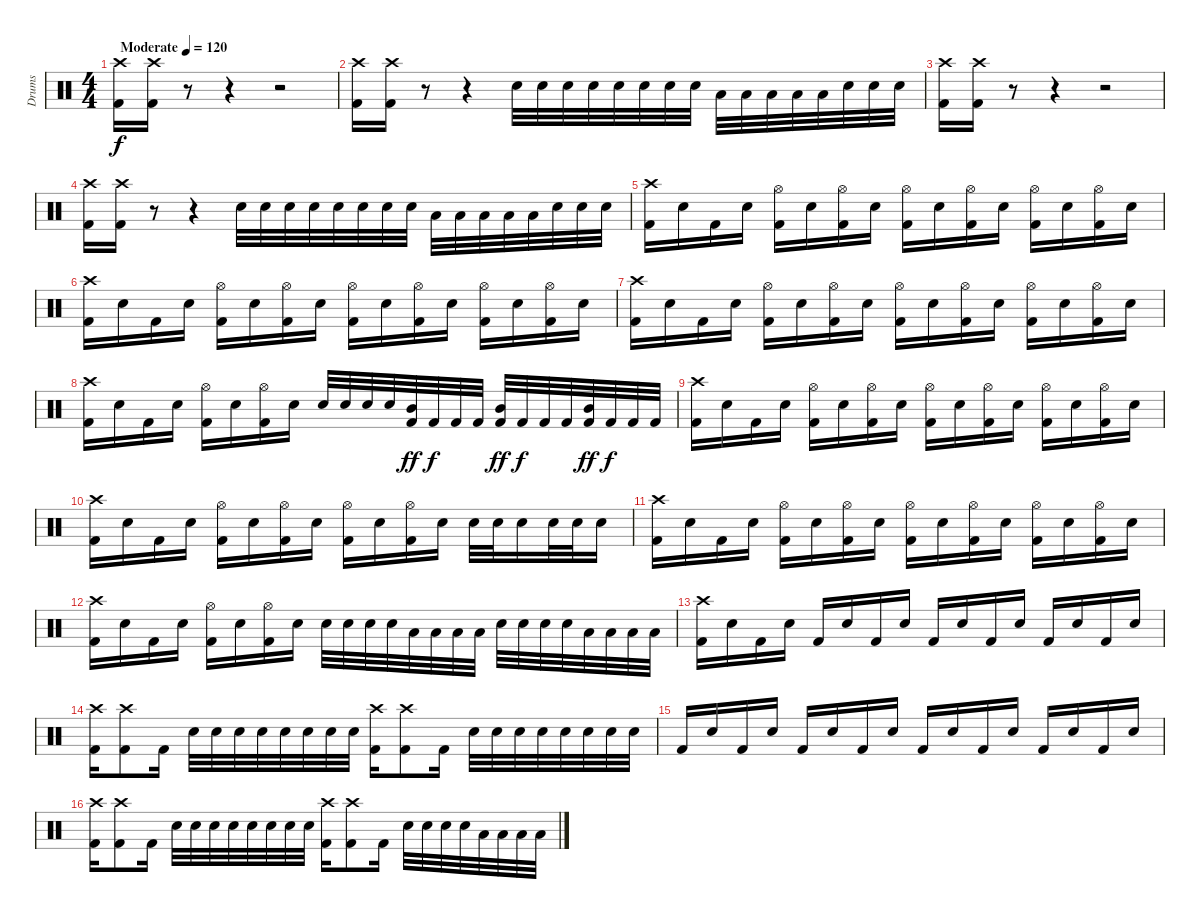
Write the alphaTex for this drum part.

\track ("Drums" "Drums") {instrument percussion}
\staff {score}
\articulation defaults
\ts (4 4)
\tempo (120 "Moderate")
\clef neutral
\ks c
("Crash high (hit)" "Kick (hit) 2").16{dy f} ("Crash high (hit)" "Kick (hit) 2").16 r.8 r.4 r.2 |
("Crash high (hit)" "Kick (hit) 2").16 ("Crash high (hit)" "Kick (hit) 2").16 r.8 r.4 "Electric Snare (hit)".32 "Electric Snare (hit)".32 "Electric Snare (hit)".32 "Electric Snare (hit)".32 "Electric Snare (hit)".32 "Electric Snare (hit)".32 "Electric Snare (hit)".32 "Electric Snare (hit)".32 "Low Floor Tom (hit)".32 "Low Floor Tom (hit)".32 "Low Floor Tom (hit)".32 "Low Floor Tom (hit)".32 "Low Floor Tom (hit)".32 "Electric Snare (hit)".32 "Electric Snare (hit)".32 "Electric Snare (hit)".32 |
("Crash high (hit)" "Kick (hit) 2").16 ("Crash high (hit)" "Kick (hit) 2").16 r.8 r.4 r.2 |
("Crash high (hit)" "Kick (hit) 2").16 ("Crash high (hit)" "Kick (hit) 2").16 r.8 r.4 "Electric Snare (hit)".32 "Electric Snare (hit)".32 "Electric Snare (hit)".32 "Electric Snare (hit)".32 "Electric Snare (hit)".32 "Electric Snare (hit)".32 "Electric Snare (hit)".32 "Electric Snare (hit)".32 "Low Floor Tom (hit)".32 "Low Floor Tom (hit)".32 "Low Floor Tom (hit)".32 "Low Floor Tom (hit)".32 "Low Floor Tom (hit)".32 "Electric Snare (hit)".32 "Electric Snare (hit)".32 "Electric Snare (hit)".32 |
("Crash high (hit)" "Kick (hit) 2").16 "Electric Snare (hit)".16 "Kick (hit) 2".16 "Electric Snare (hit)".16 ("Hi-Hat (open)" "Kick (hit) 2").16 "Electric Snare (hit)".16 ("Hi-Hat (open)" "Kick (hit) 2").16 "Electric Snare (hit)".16 ("Hi-Hat (open)" "Kick (hit) 2").16 "Electric Snare (hit)".16 ("Hi-Hat (open)" "Kick (hit) 2").16 "Electric Snare (hit)".16 ("Hi-Hat (open)" "Kick (hit) 2").16 "Electric Snare (hit)".16 ("Hi-Hat (open)" "Kick (hit) 2").16 "Electric Snare (hit)".16 |
("Crash high (hit)" "Kick (hit) 2").16 "Electric Snare (hit)".16 "Kick (hit) 2".16 "Electric Snare (hit)".16 ("Hi-Hat (open)" "Kick (hit) 2").16 "Electric Snare (hit)".16 ("Hi-Hat (open)" "Kick (hit) 2").16 "Electric Snare (hit)".16 ("Hi-Hat (open)" "Kick (hit) 2").16 "Electric Snare (hit)".16 ("Hi-Hat (open)" "Kick (hit) 2").16 "Electric Snare (hit)".16 ("Hi-Hat (open)" "Kick (hit) 2").16 "Electric Snare (hit)".16 ("Hi-Hat (open)" "Kick (hit) 2").16 "Electric Snare (hit)".16 |
("Crash high (hit)" "Kick (hit) 2").16 "Electric Snare (hit)".16 "Kick (hit) 2".16 "Electric Snare (hit)".16 ("Hi-Hat (open)" "Kick (hit) 2").16 "Electric Snare (hit)".16 ("Hi-Hat (open)" "Kick (hit) 2").16 "Electric Snare (hit)".16 ("Hi-Hat (open)" "Kick (hit) 2").16 "Electric Snare (hit)".16 ("Hi-Hat (open)" "Kick (hit) 2").16 "Electric Snare (hit)".16 ("Hi-Hat (open)" "Kick (hit) 2").16 "Electric Snare (hit)".16 ("Hi-Hat (open)" "Kick (hit) 2").16 "Electric Snare (hit)".16 |
("Crash high (hit)" "Kick (hit) 2").16 "Electric Snare (hit)".16 "Kick (hit) 2".16 "Electric Snare (hit)".16 ("Hi-Hat (open)" "Kick (hit) 2").16 "Electric Snare (hit)".16 ("Hi-Hat (open)" "Kick (hit) 2").16 "Electric Snare (hit)".16 "Electric Snare (hit)".32 "Electric Snare (hit)".32 "Electric Snare (hit)".32 "Electric Snare (hit)".32 ("Mid Tom (hit)" "Kick (hit) 2").32{dy ff} "Kick (hit) 2".32{dy f} "Kick (hit) 2".32 "Kick (hit) 2".32 ("Mid Tom (hit)" "Kick (hit) 2").32{dy ff} "Kick (hit) 2".32{dy f} "Kick (hit) 2".32 "Kick (hit) 2".32 ("Mid Tom (hit)" "Kick (hit) 2").32{dy ff} "Kick (hit) 2".32{dy f} "Kick (hit) 2".32 "Kick (hit) 2".32 |
("Crash high (hit)" "Kick (hit) 2").16 "Electric Snare (hit)".16 "Kick (hit) 2".16 "Electric Snare (hit)".16 ("Hi-Hat (open)" "Kick (hit) 2").16 "Electric Snare (hit)".16 ("Hi-Hat (open)" "Kick (hit) 2").16 "Electric Snare (hit)".16 ("Hi-Hat (open)" "Kick (hit) 2").16 "Electric Snare (hit)".16 ("Hi-Hat (open)" "Kick (hit) 2").16 "Electric Snare (hit)".16 ("Hi-Hat (open)" "Kick (hit) 2").16 "Electric Snare (hit)".16 ("Hi-Hat (open)" "Kick (hit) 2").16 "Electric Snare (hit)".16 |
("Crash high (hit)" "Kick (hit) 2").16 "Electric Snare (hit)".16 "Kick (hit) 2".16 "Electric Snare (hit)".16 ("Hi-Hat (open)" "Kick (hit) 2").16 "Electric Snare (hit)".16 ("Hi-Hat (open)" "Kick (hit) 2").16 "Electric Snare (hit)".16 ("Hi-Hat (open)" "Kick (hit) 2").16 "Electric Snare (hit)".16 ("Hi-Hat (open)" "Kick (hit) 2").16 "Electric Snare (hit)".16 "Electric Snare (hit)".32 "Electric Snare (hit)".32 "Electric Snare (hit)".16 "Electric Snare (hit)".32 "Electric Snare (hit)".32 "Electric Snare (hit)".16 |
("Crash high (hit)" "Kick (hit) 2").16 "Electric Snare (hit)".16 "Kick (hit) 2".16 "Electric Snare (hit)".16 ("Hi-Hat (open)" "Kick (hit) 2").16 "Electric Snare (hit)".16 ("Hi-Hat (open)" "Kick (hit) 2").16 "Electric Snare (hit)".16 ("Hi-Hat (open)" "Kick (hit) 2").16 "Electric Snare (hit)".16 ("Hi-Hat (open)" "Kick (hit) 2").16 "Electric Snare (hit)".16 ("Hi-Hat (open)" "Kick (hit) 2").16 "Electric Snare (hit)".16 ("Hi-Hat (open)" "Kick (hit) 2").16 "Electric Snare (hit)".16 |
("Crash high (hit)" "Kick (hit) 2").16 "Electric Snare (hit)".16 "Kick (hit) 2".16 "Electric Snare (hit)".16 ("Hi-Hat (open)" "Kick (hit) 2").16 "Electric Snare (hit)".16 ("Hi-Hat (open)" "Kick (hit) 2").16 "Electric Snare (hit)".16 "Electric Snare (hit)".32 "Electric Snare (hit)".32 "Electric Snare (hit)".32 "Electric Snare (hit)".32 "Low Tom (hit)".32 "Low Tom (hit)".32 "Low Tom (hit)".32 "Low Tom (hit)".32 "Electric Snare (hit)".32 "Electric Snare (hit)".32 "Electric Snare (hit)".32 "Electric Snare (hit)".32 "Low Tom (hit)".32 "Low Tom (hit)".32 "Low Tom (hit)".32 "Low Tom (hit)".32 |
("Crash high (hit)" "Kick (hit) 2").16 "Electric Snare (hit)".16 "Kick (hit) 2".16 "Electric Snare (hit)".16 "Kick (hit) 2".16 "Electric Snare (hit)".16 "Kick (hit) 2".16 "Electric Snare (hit)".16 "Kick (hit) 2".16 "Electric Snare (hit)".16 "Kick (hit) 2".16 "Electric Snare (hit)".16 "Kick (hit) 2".16 "Electric Snare (hit)".16 "Kick (hit) 2".16 "Electric Snare (hit)".16 |
("Crash high (hit)" "Kick (hit) 2").16 ("Crash high (hit)" "Kick (hit) 2").8 "Kick (hit) 2".16 "Electric Snare (hit)".32 "Electric Snare (hit)".32 "Electric Snare (hit)".32 "Electric Snare (hit)".32 "Electric Snare (hit)".32 "Electric Snare (hit)".32 "Electric Snare (hit)".32 "Electric Snare (hit)".32 ("Crash high (hit)" "Kick (hit) 2").16 ("Crash high (hit)" "Kick (hit) 2").8 "Kick (hit) 2".16 "Electric Snare (hit)".32 "Electric Snare (hit)".32 "Electric Snare (hit)".32 "Electric Snare (hit)".32 "Electric Snare (hit)".32 "Electric Snare (hit)".32 "Electric Snare (hit)".32 "Electric Snare (hit)".32 |
"Kick (hit) 2".16 "Electric Snare (hit)".16 "Kick (hit) 2".16 "Electric Snare (hit)".16 "Kick (hit) 2".16 "Electric Snare (hit)".16 "Kick (hit) 2".16 "Electric Snare (hit)".16 "Kick (hit) 2".16 "Electric Snare (hit)".16 "Kick (hit) 2".16 "Electric Snare (hit)".16 "Kick (hit) 2".16 "Electric Snare (hit)".16 "Kick (hit) 2".16 "Electric Snare (hit)".16 |
("Crash high (hit)" "Kick (hit) 2").16 ("Crash high (hit)" "Kick (hit) 2").8 "Kick (hit) 2".16 "Electric Snare (hit)".32 "Electric Snare (hit)".32 "Electric Snare (hit)".32 "Electric Snare (hit)".32 "Electric Snare (hit)".32 "Electric Snare (hit)".32 "Electric Snare (hit)".32 "Electric Snare (hit)".32 ("Crash high (hit)" "Kick (hit) 2").16 ("Crash high (hit)" "Kick (hit) 2").8 "Kick (hit) 2".16 "Electric Snare (hit)".32 "Electric Snare (hit)".32 "Electric Snare (hit)".32 "Electric Snare (hit)".32 "Low Tom (hit)".32 "Low Tom (hit)".32 "Low Tom (hit)".32 "Low Tom (hit)".32
